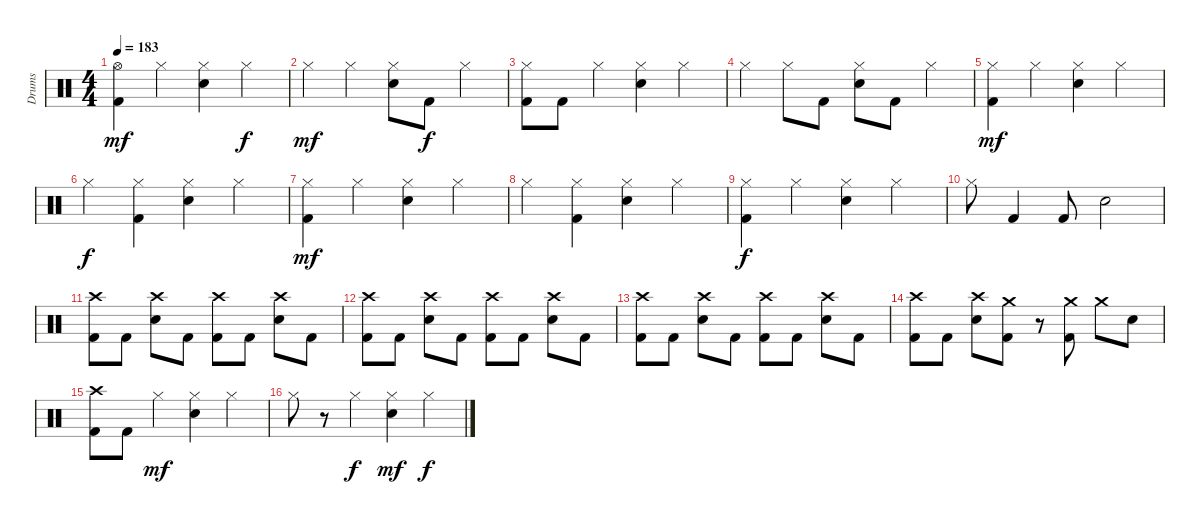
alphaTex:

\track ("Drums" "Drums") {instrument percussion}
\staff {score}
\articulation defaults
\ts (4 4)
\tempo 183
\clef neutral
\ks c
("Hi-Hat (open)" "Kick (hit) 2").4{dy mf} "Hi-Hat (closed)".4 ("Hi-Hat (closed)" "Snare (hit) 2").4 "Hi-Hat (closed)".4{dy f} |
"Hi-Hat (closed)".4{dy mf} "Hi-Hat (closed)".4 ("Hi-Hat (closed)" "Snare (hit) 2").8 "Kick (hit) 2".8{dy f} "Hi-Hat (closed)".4 |
("Hi-Hat (closed)" "Kick (hit) 2").8 "Kick (hit) 2".8 "Hi-Hat (closed)".4 ("Hi-Hat (closed)" "Snare (hit) 2").4 "Hi-Hat (closed)".4 |
"Hi-Hat (closed)".4 "Hi-Hat (closed)".8 "Kick (hit) 2".8 ("Hi-Hat (closed)" "Snare (hit) 2").8 "Kick (hit) 2".8 "Hi-Hat (closed)".4 |
("Hi-Hat (closed)" "Kick (hit) 2").4{dy mf} "Hi-Hat (closed)".4 ("Hi-Hat (closed)" "Snare (hit) 2").4 "Hi-Hat (closed)".4 |
"Hi-Hat (closed)".4{dy f} ("Hi-Hat (closed)" "Kick (hit) 2").4 ("Hi-Hat (closed)" "Snare (hit) 2").4 "Hi-Hat (closed)".4 |
("Hi-Hat (closed)" "Kick (hit) 2").4{dy mf} "Hi-Hat (closed)".4 ("Hi-Hat (closed)" "Snare (hit) 2").4 "Hi-Hat (closed)".4 |
"Hi-Hat (closed)".4 ("Hi-Hat (closed)" "Kick (hit) 2").4 ("Hi-Hat (closed)" "Snare (hit) 2").4 "Hi-Hat (closed)".4 |
("Hi-Hat (closed)" "Kick (hit) 2").4{dy f} "Hi-Hat (closed)".4 ("Hi-Hat (closed)" "Snare (hit) 2").4 "Hi-Hat (closed)".4 |
"Hi-Hat (closed)".8 "Kick (hit) 2".4 "Kick (hit) 2".8 "Snare (hit) 2".2 |
("Crash high (hit)" "Kick (hit) 2").8 "Kick (hit) 2".8 ("Crash high (hit)" "Snare (hit) 2").8 "Kick (hit) 2".8 ("Crash high (hit)" "Kick (hit) 2").8 "Kick (hit) 2".8 ("Crash high (hit)" "Snare (hit) 2").8 "Kick (hit) 2".8 |
("Crash high (hit)" "Kick (hit) 2").8 "Kick (hit) 2".8 ("Crash high (hit)" "Snare (hit) 2").8 "Kick (hit) 2".8 ("Crash high (hit)" "Kick (hit) 2").8 "Kick (hit) 2".8 ("Crash high (hit)" "Snare (hit) 2").8 "Kick (hit) 2".8 |
("Crash high (hit)" "Kick (hit) 2").8 "Kick (hit) 2".8 ("Crash high (hit)" "Snare (hit) 2").8 "Kick (hit) 2".8 ("Crash high (hit)" "Kick (hit) 2").8 "Kick (hit) 2".8 ("Crash high (hit)" "Snare (hit) 2").8 "Kick (hit) 2".8 |
("Crash high (hit)" "Kick (hit) 2").8 "Kick (hit) 2".8 ("Crash high (hit)" "Snare (hit) 2").8 ("Crash medium (hit)" "Kick (hit) 2").8 r.8 ("Crash medium (hit)" "Kick (hit) 2").8 "Crash medium (hit)".8 "Snare (hit) 2".8 |
("Crash high (hit)" "Kick (hit) 2").8 "Kick (hit) 2".8 "Hi-Hat (closed)".4{dy mf} ("Hi-Hat (closed)" "Snare (hit) 2").4 "Hi-Hat (closed)".4 |
"Hi-Hat (closed)".8 r.8 "Hi-Hat (closed)".4{dy f} ("Hi-Hat (closed)" "Snare (hit) 2").4{dy mf} "Hi-Hat (closed)".4{dy f}
